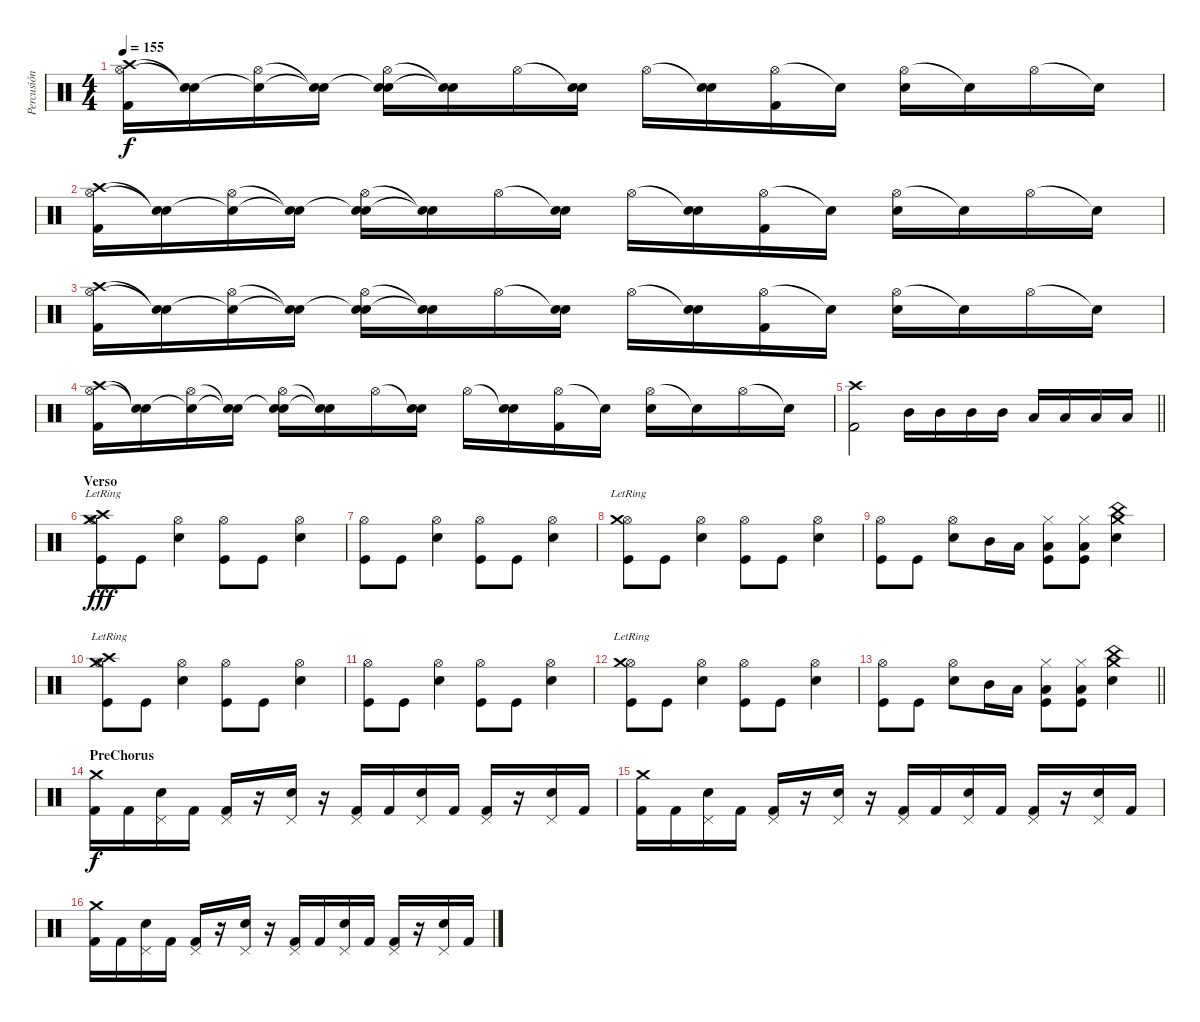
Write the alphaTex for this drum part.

\track ("Percusión (Erik)" "Percusión ") {instrument percussion}
\staff {score}
\articulation defaults
\ts (4 4)
\tempo 155
\clef neutral
\ks c
("Crash high (hit)" "Hi-Hat (open)" "Kick (hit) 2").16{dy f volume 14} ("Snare (hit)"{t} "Snare (hit)"{t}).16 ("Snare (hit)"{t} "Hi-Hat (open)").16 ("Snare (hit)"{t} "Snare (hit)"{t}).16 ("Snare (hit)"{t} "Hi-Hat (open)" "Electric Snare (hit)").16 ("Snare (hit)"{t} "Snare (hit)"{t}).16 "Hi-Hat (open)".16 ("Snare (hit)"{t} "Electric Snare (hit)").16 "Hi-Hat (open)".16 ("Snare (hit)"{t} "Electric Snare (hit)").16 ("Hi-Hat (open)" "Kick (hit) 2").16 "Snare (hit)"{t}.16 ("Hi-Hat (open)" "Electric Snare (hit)").16 "Snare (hit)"{t}.16 "Hi-Hat (open)".16 "Snare (hit)"{t}.16 |
("Crash high (hit)" "Hi-Hat (open)" "Kick (hit) 2").16{volume 14} ("Snare (hit)"{t} "Snare (hit)"{t}).16 ("Snare (hit)"{t} "Hi-Hat (open)").16 ("Snare (hit)"{t} "Snare (hit)"{t}).16 ("Snare (hit)"{t} "Hi-Hat (open)" "Electric Snare (hit)").16 ("Snare (hit)"{t} "Snare (hit)"{t}).16 "Hi-Hat (open)".16 ("Snare (hit)"{t} "Electric Snare (hit)").16 "Hi-Hat (open)".16 ("Snare (hit)"{t} "Electric Snare (hit)").16 ("Hi-Hat (open)" "Kick (hit) 2").16 "Snare (hit)"{t}.16 ("Hi-Hat (open)" "Electric Snare (hit)").16 "Snare (hit)"{t}.16 "Hi-Hat (open)".16 "Snare (hit)"{t}.16 |
("Crash high (hit)" "Hi-Hat (open)" "Kick (hit) 2").16{volume 14} ("Snare (hit)"{t} "Snare (hit)"{t}).16 ("Snare (hit)"{t} "Hi-Hat (open)").16 ("Snare (hit)"{t} "Snare (hit)"{t}).16 ("Snare (hit)"{t} "Hi-Hat (open)" "Electric Snare (hit)").16 ("Snare (hit)"{t} "Snare (hit)"{t}).16 "Hi-Hat (open)".16 ("Snare (hit)"{t} "Electric Snare (hit)").16 "Hi-Hat (open)".16 ("Snare (hit)"{t} "Electric Snare (hit)").16 ("Hi-Hat (open)" "Kick (hit) 2").16 "Snare (hit)"{t}.16 ("Hi-Hat (open)" "Electric Snare (hit)").16 "Snare (hit)"{t}.16 "Hi-Hat (open)".16 "Snare (hit)"{t}.16 |
("Crash high (hit)" "Hi-Hat (open)" "Kick (hit) 2").16{volume 14} ("Snare (hit)"{t} "Snare (hit)"{t}).16 ("Snare (hit)"{t} "Hi-Hat (open)").16 ("Snare (hit)"{t} "Snare (hit)"{t}).16 ("Snare (hit)"{t} "Hi-Hat (open)" "Electric Snare (hit)").16 ("Snare (hit)"{t} "Snare (hit)"{t}).16 "Hi-Hat (open)".16 ("Snare (hit)"{t} "Electric Snare (hit)").16 "Hi-Hat (open)".16 ("Snare (hit)"{t} "Electric Snare (hit)").16 ("Hi-Hat (open)" "Kick (hit) 2").16 "Snare (hit)"{t}.16 ("Hi-Hat (open)" "Electric Snare (hit)").16 "Snare (hit)"{t}.16 "Hi-Hat (open)".16 "Snare (hit)"{t}.16 |
\barLineRight lightlight
("Crash high (hit)" "Kick (hit) 2").2 "Mid Tom (hit)".16 "Mid Tom (hit)".16 "Mid Tom (hit)".16 "Mid Tom (hit)".16 "Low Floor Tom (hit)".16 "Low Floor Tom (hit)".16 "Low Floor Tom (hit)".16 "Low Floor Tom (hit)".16 |
\section ("" "Verso")
("Crash high (hit)"{lr} "Hi-Hat (open)" "Crash medium (hit)"{lr} "Kick (hit)").8{dy fff} "Kick (hit)".8 ("Hi-Hat (open)" "Snare (hit) 2").4 ("Hi-Hat (open)" "Kick (hit)").8 "Kick (hit)".8 ("Hi-Hat (open)" "Snare (hit) 2").4 |
("Hi-Hat (open)" "Kick (hit)").8 "Kick (hit)".8 ("Hi-Hat (open)" "Snare (hit) 2").4 ("Hi-Hat (open)" "Kick (hit)").8 "Kick (hit)".8 ("Hi-Hat (open)" "Snare (hit) 2").4 |
("Hi-Hat (open)" "Crash medium (hit)"{lr} "Kick (hit)").8 "Kick (hit)".8 ("Hi-Hat (open)" "Snare (hit) 2").4 ("Hi-Hat (open)" "Kick (hit)").8 "Kick (hit)".8 ("Hi-Hat (open)" "Snare (hit) 2").4 |
("Hi-Hat (open)" "Kick (hit)").8 "Kick (hit)".8 ("Hi-Hat (open)" "Snare (hit) 2").8 "Mid Tom (hit)".16 "Low Tom (hit)".16 ("Hi-Hat (closed)" "Low Floor Tom (hit)" "Kick (hit)").8 ("Hi-Hat (closed)" "Low Floor Tom (hit)" "Kick (hit)").8 ("Crash medium (hit)" "China (hit)" "Snare (hit) 2").4 |
("Crash high (hit)"{lr} "Hi-Hat (open)" "Crash medium (hit)"{lr} "Kick (hit)").8 "Kick (hit)".8 ("Hi-Hat (open)" "Snare (hit) 2").4 ("Hi-Hat (open)" "Kick (hit)").8 "Kick (hit)".8 ("Hi-Hat (open)" "Snare (hit) 2").4 |
("Hi-Hat (open)" "Kick (hit)").8 "Kick (hit)".8 ("Hi-Hat (open)" "Snare (hit) 2").4 ("Hi-Hat (open)" "Kick (hit)").8 "Kick (hit)".8 ("Hi-Hat (open)" "Snare (hit) 2").4 |
("Hi-Hat (open)" "Crash medium (hit)"{lr} "Kick (hit)").8 "Kick (hit)".8 ("Hi-Hat (open)" "Snare (hit) 2").4 ("Hi-Hat (open)" "Kick (hit)").8 "Kick (hit)".8 ("Hi-Hat (open)" "Snare (hit) 2").4 |
\barLineRight lightlight
("Hi-Hat (open)" "Kick (hit)").8 "Kick (hit)".8 ("Hi-Hat (open)" "Snare (hit) 2").8 "Mid Tom (hit)".16 "Low Tom (hit)".16 ("Hi-Hat (closed)" "Low Floor Tom (hit)" "Kick (hit)").8 ("Hi-Hat (closed)" "Low Floor Tom (hit)" "Kick (hit)").8 ("Crash medium (hit)" "China (hit)" "Snare (hit) 2").4 |
\section ("" "PreChorus")
("Crash medium (hit)" "Kick (hit) 2").16{dy f} "Kick (hit) 2".16 ("Pedal Hi-Hat (hit)" "Electric Snare (hit)").16 "Kick (hit) 2".16 ("Pedal Hi-Hat (hit)" "Kick (hit) 2").16 r.16 ("Pedal Hi-Hat (hit)" "Electric Snare (hit)").16 r.16 ("Pedal Hi-Hat (hit)" "Kick (hit) 2").16 "Kick (hit) 2".16 ("Pedal Hi-Hat (hit)" "Electric Snare (hit)").16 "Kick (hit) 2".16 ("Pedal Hi-Hat (hit)" "Kick (hit) 2").16 r.16 ("Pedal Hi-Hat (hit)" "Electric Snare (hit)").16 "Kick (hit) 2".16 |
("Crash medium (hit)" "Kick (hit) 2").16 "Kick (hit) 2".16 ("Pedal Hi-Hat (hit)" "Electric Snare (hit)").16 "Kick (hit) 2".16 ("Pedal Hi-Hat (hit)" "Kick (hit) 2").16 r.16 ("Pedal Hi-Hat (hit)" "Electric Snare (hit)").16 r.16 ("Pedal Hi-Hat (hit)" "Kick (hit) 2").16 "Kick (hit) 2".16 ("Pedal Hi-Hat (hit)" "Electric Snare (hit)").16 "Kick (hit) 2".16 ("Pedal Hi-Hat (hit)" "Kick (hit) 2").16 r.16 ("Pedal Hi-Hat (hit)" "Electric Snare (hit)").16 "Kick (hit) 2".16 |
("Crash medium (hit)" "Kick (hit) 2").16 "Kick (hit) 2".16 ("Pedal Hi-Hat (hit)" "Electric Snare (hit)").16 "Kick (hit) 2".16 ("Pedal Hi-Hat (hit)" "Kick (hit) 2").16 r.16 ("Pedal Hi-Hat (hit)" "Electric Snare (hit)").16 r.16 ("Pedal Hi-Hat (hit)" "Kick (hit) 2").16 "Kick (hit) 2".16 ("Pedal Hi-Hat (hit)" "Electric Snare (hit)").16 "Kick (hit) 2".16 ("Pedal Hi-Hat (hit)" "Kick (hit) 2").16 r.16 ("Pedal Hi-Hat (hit)" "Electric Snare (hit)").16 "Kick (hit) 2".16
